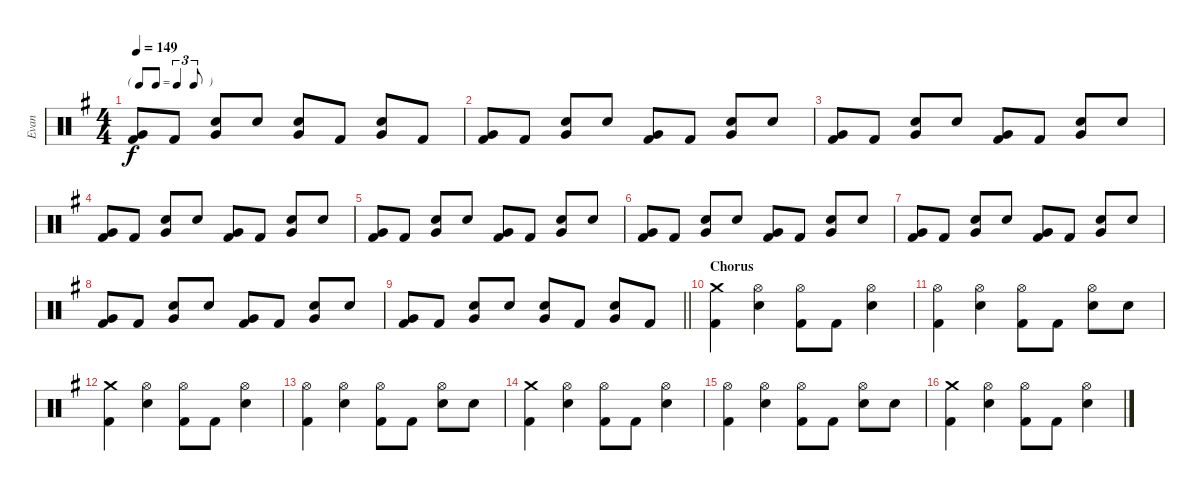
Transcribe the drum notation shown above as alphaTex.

\track ("Evan" "Evan") {instrument percussion}
\staff {score}
\articulation defaults
\ts (4 4)
\tf triplet8th
\tempo 149
\clef neutral
\ks g
("Very Low Tom (hit)" "Kick (hit) 2").8{dy f} "Kick (hit) 2".8 ("Electric Snare (hit)" "Very Low Tom (hit)").8 "Electric Snare (hit)".8 ("Electric Snare (hit)" "Very Low Tom (hit)").8 "Kick (hit) 2".8 ("Electric Snare (hit)" "Very Low Tom (hit)").8 "Kick (hit) 2".8 |
("Very Low Tom (hit)" "Kick (hit) 2").8 "Kick (hit) 2".8 ("Electric Snare (hit)" "Very Low Tom (hit)").8 "Electric Snare (hit)".8 ("Very Low Tom (hit)" "Kick (hit) 2").8 "Kick (hit) 2".8 ("Electric Snare (hit)" "Very Low Tom (hit)").8 "Electric Snare (hit)".8 |
("Very Low Tom (hit)" "Kick (hit) 2").8 "Kick (hit) 2".8 ("Electric Snare (hit)" "Very Low Tom (hit)").8 "Electric Snare (hit)".8 ("Very Low Tom (hit)" "Kick (hit) 2").8 "Kick (hit) 2".8 ("Electric Snare (hit)" "Very Low Tom (hit)").8 "Electric Snare (hit)".8 |
("Very Low Tom (hit)" "Kick (hit) 2").8 "Kick (hit) 2".8 ("Electric Snare (hit)" "Very Low Tom (hit)").8 "Electric Snare (hit)".8 ("Very Low Tom (hit)" "Kick (hit) 2").8 "Kick (hit) 2".8 ("Electric Snare (hit)" "Very Low Tom (hit)").8 "Electric Snare (hit)".8 |
("Very Low Tom (hit)" "Kick (hit) 2").8 "Kick (hit) 2".8 ("Electric Snare (hit)" "Very Low Tom (hit)").8 "Electric Snare (hit)".8 ("Very Low Tom (hit)" "Kick (hit) 2").8 "Kick (hit) 2".8 ("Electric Snare (hit)" "Very Low Tom (hit)").8 "Electric Snare (hit)".8 |
("Very Low Tom (hit)" "Kick (hit) 2").8 "Kick (hit) 2".8 ("Electric Snare (hit)" "Very Low Tom (hit)").8 "Electric Snare (hit)".8 ("Very Low Tom (hit)" "Kick (hit) 2").8 "Kick (hit) 2".8 ("Electric Snare (hit)" "Very Low Tom (hit)").8 "Electric Snare (hit)".8 |
("Very Low Tom (hit)" "Kick (hit) 2").8 "Kick (hit) 2".8 ("Electric Snare (hit)" "Very Low Tom (hit)").8 "Electric Snare (hit)".8 ("Very Low Tom (hit)" "Kick (hit) 2").8 "Kick (hit) 2".8 ("Electric Snare (hit)" "Very Low Tom (hit)").8 "Electric Snare (hit)".8 |
("Very Low Tom (hit)" "Kick (hit) 2").8 "Kick (hit) 2".8 ("Electric Snare (hit)" "Very Low Tom (hit)").8 "Electric Snare (hit)".8 ("Very Low Tom (hit)" "Kick (hit) 2").8 "Kick (hit) 2".8 ("Electric Snare (hit)" "Very Low Tom (hit)").8 "Electric Snare (hit)".8 |
\barLineRight lightlight
("Very Low Tom (hit)" "Kick (hit) 2").8 "Kick (hit) 2".8 ("Electric Snare (hit)" "Very Low Tom (hit)").8 "Electric Snare (hit)".8 ("Electric Snare (hit)" "Very Low Tom (hit)").8 "Kick (hit) 2".8 ("Electric Snare (hit)" "Very Low Tom (hit)").8 "Kick (hit) 2".8 |
\section ("" "Chorus")
("Crash medium (hit)" "Kick (hit) 2").4 ("Hi-Hat (open)" "Electric Snare (hit)").4 ("Hi-Hat (open)" "Kick (hit) 2").8 "Kick (hit) 2".8 ("Hi-Hat (open)" "Electric Snare (hit)").4 |
("Hi-Hat (open)" "Kick (hit) 2").4 ("Hi-Hat (open)" "Electric Snare (hit)").4 ("Hi-Hat (open)" "Kick (hit) 2").8 "Kick (hit) 2".8 ("Hi-Hat (open)" "Electric Snare (hit)").8 "Electric Snare (hit)".8 |
("Crash medium (hit)" "Kick (hit) 2").4 ("Hi-Hat (open)" "Electric Snare (hit)").4 ("Hi-Hat (open)" "Kick (hit) 2").8 "Kick (hit) 2".8 ("Hi-Hat (open)" "Electric Snare (hit)").4 |
("Hi-Hat (open)" "Kick (hit) 2").4 ("Hi-Hat (open)" "Electric Snare (hit)").4 ("Hi-Hat (open)" "Kick (hit) 2").8 "Kick (hit) 2".8 ("Hi-Hat (open)" "Electric Snare (hit)").8 "Electric Snare (hit)".8 |
("Crash medium (hit)" "Kick (hit) 2").4 ("Hi-Hat (open)" "Electric Snare (hit)").4 ("Hi-Hat (open)" "Kick (hit) 2").8 "Kick (hit) 2".8 ("Hi-Hat (open)" "Electric Snare (hit)").4 |
("Hi-Hat (open)" "Kick (hit) 2").4 ("Hi-Hat (open)" "Electric Snare (hit)").4 ("Hi-Hat (open)" "Kick (hit) 2").8 "Kick (hit) 2".8 ("Hi-Hat (open)" "Electric Snare (hit)").8 "Electric Snare (hit)".8 |
("Crash medium (hit)" "Kick (hit) 2").4 ("Hi-Hat (open)" "Electric Snare (hit)").4 ("Hi-Hat (open)" "Kick (hit) 2").8 "Kick (hit) 2".8 ("Hi-Hat (open)" "Electric Snare (hit)").4
